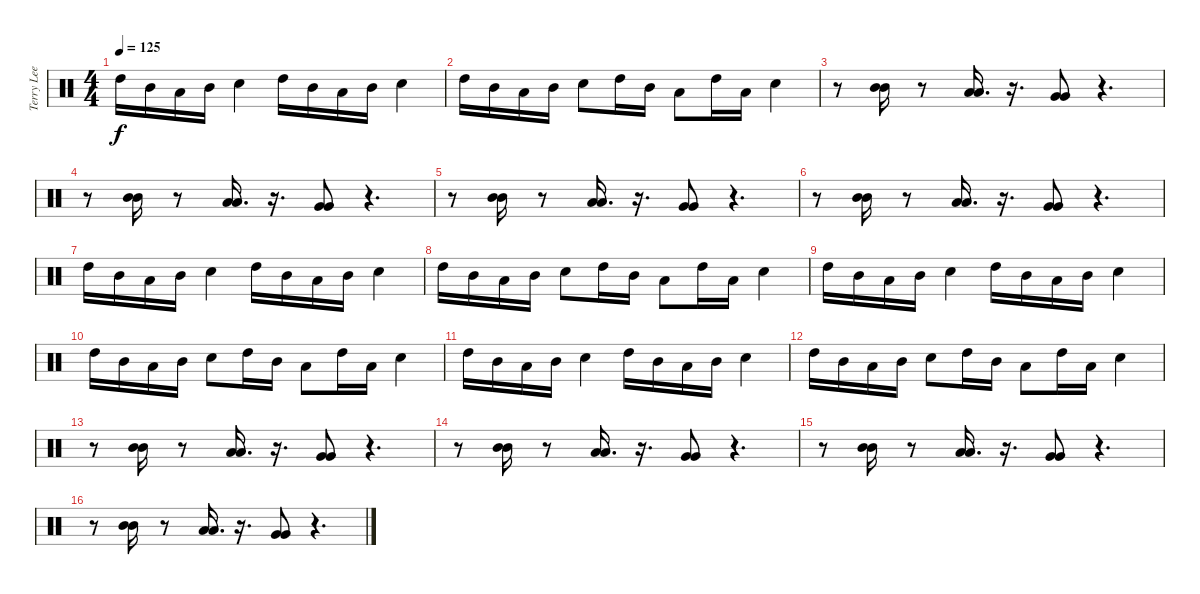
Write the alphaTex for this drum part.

\track ("Terry Lee Miall" "Terry Lee ") {instrument percussion}
\staff {score}
\articulation defaults
\ts (4 4)
\tempo 125
\clef neutral
\ks c "High Tom (hit)".16{dy f} "Mid Tom (hit)".16 "Low Tom (hit)".16 "Mid Tom (hit)".16 "Electric Snare (hit)".4 "High Tom (hit)".16 "Mid Tom (hit)".16 "Low Tom (hit)".16 "Mid Tom (hit)".16 "Electric Snare (hit)".4
|
"High Tom (hit)".16 "Mid Tom (hit)".16 "Low Tom (hit)".16 "Mid Tom (hit)".16 "Electric Snare (hit)".8 "High Tom (hit)".16 "Mid Tom (hit)".16 "Low Tom (hit)".8 "High Tom (hit)".16 "Low Tom (hit)".16 "Electric Snare (hit)".4 |
r.8 ("Mid Tom (hit)" "Mid Tom (hit)").16 r.8 ("Low Tom (hit)" "Low Tom (hit)").16{d} r.16{d} ("Very Low Tom (hit)" "Very Low Tom (hit)").8 r.4{d} |
r.8 ("Mid Tom (hit)" "Mid Tom (hit)").16 r.8 ("Low Tom (hit)" "Low Tom (hit)").16{d} r.16{d} ("Very Low Tom (hit)" "Very Low Tom (hit)").8 r.4{d} |
r.8 ("Mid Tom (hit)" "Mid Tom (hit)").16 r.8 ("Low Tom (hit)" "Low Tom (hit)").16{d} r.16{d} ("Very Low Tom (hit)" "Very Low Tom (hit)").8 r.4{d} |
r.8 ("Mid Tom (hit)" "Mid Tom (hit)").16 r.8 ("Low Tom (hit)" "Low Tom (hit)").16{d} r.16{d} ("Very Low Tom (hit)" "Very Low Tom (hit)").8 r.4{d} |
"High Tom (hit)".16 "Mid Tom (hit)".16 "Low Tom (hit)".16 "Mid Tom (hit)".16 "Electric Snare (hit)".4 "High Tom (hit)".16 "Mid Tom (hit)".16 "Low Tom (hit)".16 "Mid Tom (hit)".16 "Electric Snare (hit)".4 |
"High Tom (hit)".16 "Mid Tom (hit)".16 "Low Tom (hit)".16 "Mid Tom (hit)".16 "Electric Snare (hit)".8 "High Tom (hit)".16 "Mid Tom (hit)".16 "Low Tom (hit)".8 "High Tom (hit)".16 "Low Tom (hit)".16 "Electric Snare (hit)".4 |
"High Tom (hit)".16 "Mid Tom (hit)".16 "Low Tom (hit)".16 "Mid Tom (hit)".16 "Electric Snare (hit)".4 "High Tom (hit)".16 "Mid Tom (hit)".16 "Low Tom (hit)".16 "Mid Tom (hit)".16 "Electric Snare (hit)".4 |
"High Tom (hit)".16 "Mid Tom (hit)".16 "Low Tom (hit)".16 "Mid Tom (hit)".16 "Electric Snare (hit)".8 "High Tom (hit)".16 "Mid Tom (hit)".16 "Low Tom (hit)".8 "High Tom (hit)".16 "Low Tom (hit)".16 "Electric Snare (hit)".4 |
"High Tom (hit)".16 "Mid Tom (hit)".16 "Low Tom (hit)".16 "Mid Tom (hit)".16 "Electric Snare (hit)".4 "High Tom (hit)".16 "Mid Tom (hit)".16 "Low Tom (hit)".16 "Mid Tom (hit)".16 "Electric Snare (hit)".4 |
"High Tom (hit)".16 "Mid Tom (hit)".16 "Low Tom (hit)".16 "Mid Tom (hit)".16 "Electric Snare (hit)".8 "High Tom (hit)".16 "Mid Tom (hit)".16 "Low Tom (hit)".8 "High Tom (hit)".16 "Low Tom (hit)".16 "Electric Snare (hit)".4 |
r.8 ("Mid Tom (hit)" "Mid Tom (hit)").16 r.8 ("Low Tom (hit)" "Low Tom (hit)").16{d} r.16{d} ("Very Low Tom (hit)" "Very Low Tom (hit)").8 r.4{d} |
r.8 ("Mid Tom (hit)" "Mid Tom (hit)").16 r.8 ("Low Tom (hit)" "Low Tom (hit)").16{d} r.16{d} ("Very Low Tom (hit)" "Very Low Tom (hit)").8 r.4{d} |
r.8 ("Mid Tom (hit)" "Mid Tom (hit)").16 r.8 ("Low Tom (hit)" "Low Tom (hit)").16{d} r.16{d} ("Very Low Tom (hit)" "Very Low Tom (hit)").8 r.4{d} |
r.8 ("Mid Tom (hit)" "Mid Tom (hit)").16 r.8 ("Low Tom (hit)" "Low Tom (hit)").16{d} r.16{d} ("Very Low Tom (hit)" "Very Low Tom (hit)").8 r.4{d}
